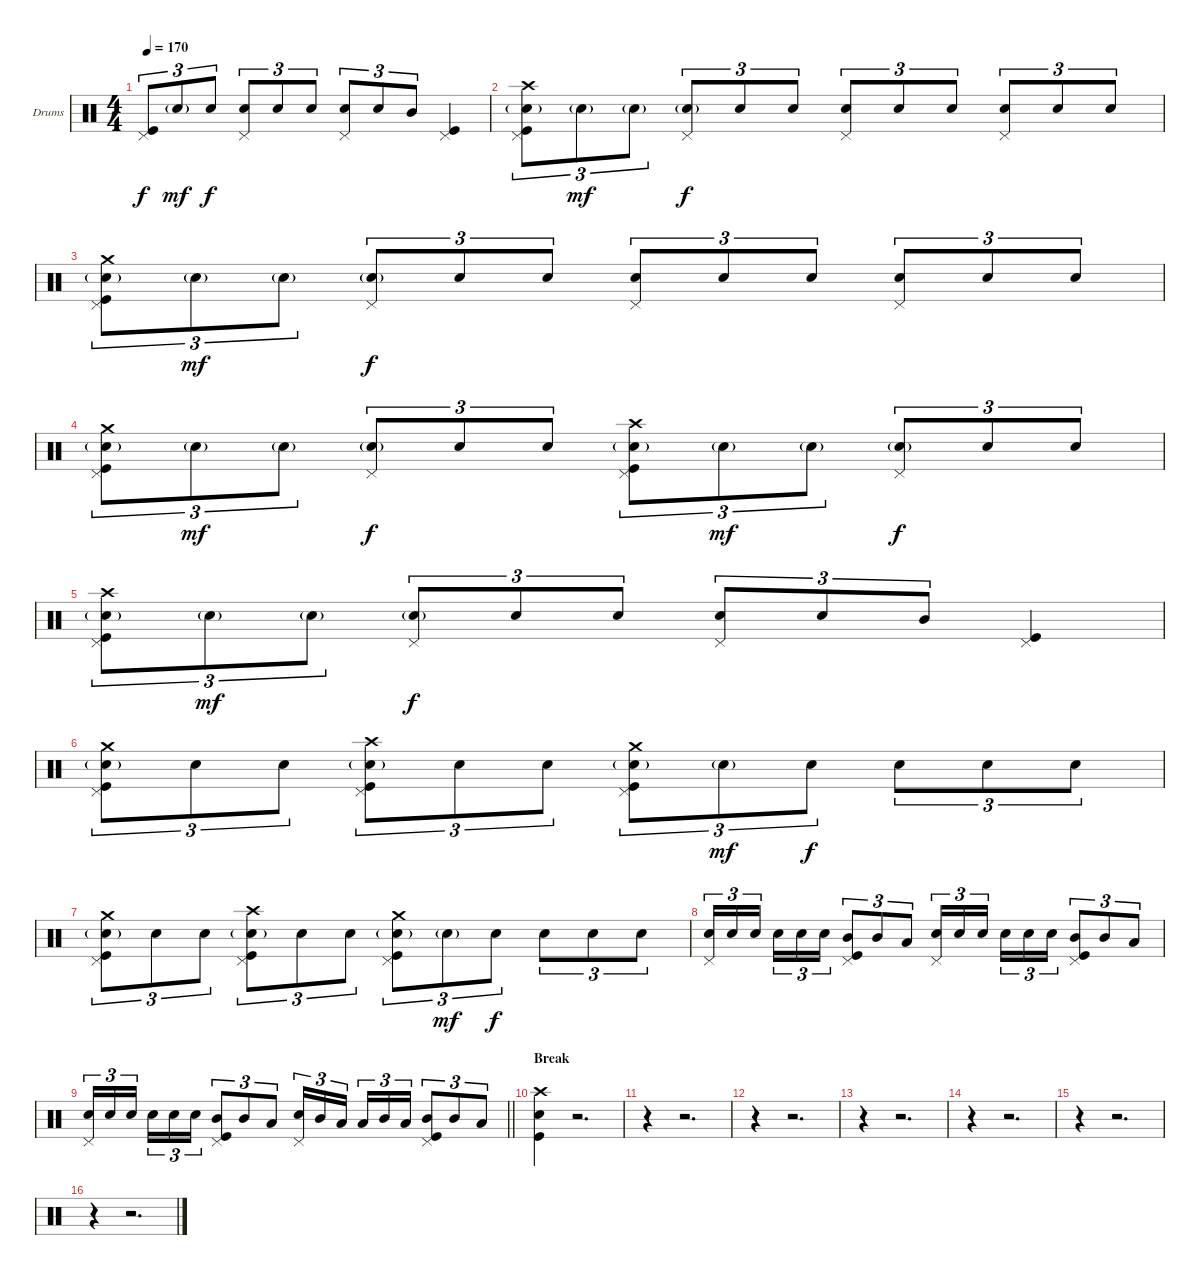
\bracketExtendMode groupsimilarinstruments
\firstSystemTrackNameOrientation horizontal
\otherSystemsTrackNameOrientation horizontal
\track ("Dave Grohl [Drumms]" "Drums") {instrument percussion}
\staff {score}
\articulation defaults
\ts (4 4)
\tempo 170
\clef neutral
\ks c
("Pedal Hi-Hat (hit)" "Kick (hit)").8{tu (3 2) dy f} "Snare (hit) 2"{g}.8{tu (3 2) dy mf} "Snare (hit) 2".8{tu (3 2) dy f} ("Pedal Hi-Hat (hit)" "Snare (hit) 2").8{tu (3 2)} "Snare (hit) 2".8{tu (3 2)} "Snare (hit) 2".8{tu (3 2)} ("Pedal Hi-Hat (hit)" "Snare (hit) 2").8{tu (3 2)} "Snare (hit) 2".8{tu (3 2)} "Mid Tom (hit)".8{tu (3 2)} ("Pedal Hi-Hat (hit)" "Kick (hit)").4 |
("Crash high (hit)" "Pedal Hi-Hat (hit)" "Snare (hit) 2"{g} "Kick (hit)").8{tu (3 2)} "Snare (hit) 2"{g}.8{tu (3 2) dy mf} "Snare (hit) 2"{g}.8{tu (3 2)} ("Pedal Hi-Hat (hit)" "Snare (hit) 2"{g}).8{tu (3 2) dy f} "Snare (hit) 2".8{tu (3 2)} "Snare (hit) 2".8{tu (3 2)} ("Pedal Hi-Hat (hit)" "Snare (hit) 2").8{tu (3 2)} "Snare (hit) 2".8{tu (3 2)} "Snare (hit) 2".8{tu (3 2)} ("Pedal Hi-Hat (hit)" "Snare (hit) 2").8{tu (3 2)} "Snare (hit) 2".8{tu (3 2)} "Snare (hit) 2".8{tu (3 2)} |
("Crash medium (hit)" "Pedal Hi-Hat (hit)" "Snare (hit) 2"{g} "Kick (hit)").8{tu (3 2)} "Snare (hit) 2"{g}.8{tu (3 2) dy mf} "Snare (hit) 2"{g}.8{tu (3 2)} ("Pedal Hi-Hat (hit)" "Snare (hit) 2"{g}).8{tu (3 2) dy f} "Snare (hit) 2".8{tu (3 2)} "Snare (hit) 2".8{tu (3 2)} ("Pedal Hi-Hat (hit)" "Snare (hit) 2").8{tu (3 2)} "Snare (hit) 2".8{tu (3 2)} "Snare (hit) 2".8{tu (3 2)} ("Pedal Hi-Hat (hit)" "Snare (hit) 2").8{tu (3 2)} "Snare (hit) 2".8{tu (3 2)} "Snare (hit) 2".8{tu (3 2)} |
("Crash medium (hit)" "Pedal Hi-Hat (hit)" "Snare (hit) 2"{g} "Kick (hit)").8{tu (3 2)} "Snare (hit) 2"{g}.8{tu (3 2) dy mf} "Snare (hit) 2"{g}.8{tu (3 2)} ("Pedal Hi-Hat (hit)" "Snare (hit) 2"{g}).8{tu (3 2) dy f} "Snare (hit) 2".8{tu (3 2)} "Snare (hit) 2".8{tu (3 2)} ("Crash high (hit)" "Pedal Hi-Hat (hit)" "Snare (hit) 2"{g} "Kick (hit)").8{tu (3 2)} "Snare (hit) 2"{g}.8{tu (3 2) dy mf} "Snare (hit) 2"{g}.8{tu (3 2)} ("Pedal Hi-Hat (hit)" "Snare (hit) 2"{g}).8{tu (3 2) dy f} "Snare (hit) 2".8{tu (3 2)} "Snare (hit) 2".8{tu (3 2)} |
("Crash high (hit)" "Pedal Hi-Hat (hit)" "Snare (hit) 2"{g} "Kick (hit)").8{tu (3 2)} "Snare (hit) 2"{g}.8{tu (3 2) dy mf} "Snare (hit) 2"{g}.8{tu (3 2)} ("Pedal Hi-Hat (hit)" "Snare (hit) 2"{g}).8{tu (3 2) dy f} "Snare (hit) 2".8{tu (3 2)} "Snare (hit) 2".8{tu (3 2)} ("Pedal Hi-Hat (hit)" "Snare (hit) 2").8{tu (3 2)} "Snare (hit) 2".8{tu (3 2)} "Mid Tom (hit)".8{tu (3 2)} ("Pedal Hi-Hat (hit)" "Kick (hit)").4 |
("Crash medium (hit)" "Pedal Hi-Hat (hit)" "Snare (hit) 2"{g} "Kick (hit)").8{tu (3 2)} "Snare (hit) 2".8{tu (3 2)} "Snare (hit) 2".8{tu (3 2)} ("Crash high (hit)" "Pedal Hi-Hat (hit)" "Snare (hit) 2"{g} "Kick (hit)").8{tu (3 2)} "Snare (hit) 2".8{tu (3 2)} "Snare (hit) 2".8{tu (3 2)} ("Crash medium (hit)" "Pedal Hi-Hat (hit)" "Snare (hit) 2"{g} "Kick (hit)").8{tu (3 2)} "Snare (hit) 2"{g}.8{tu (3 2) dy mf} "Snare (hit) 2".8{tu (3 2) dy f} "Snare (hit) 2".8{tu (3 2)} "Snare (hit) 2".8{tu (3 2)} "Snare (hit) 2".8{tu (3 2)} |
("Crash medium (hit)" "Pedal Hi-Hat (hit)" "Snare (hit) 2"{g} "Kick (hit)").8{tu (3 2)} "Snare (hit) 2".8{tu (3 2)} "Snare (hit) 2".8{tu (3 2)} ("Crash high (hit)" "Pedal Hi-Hat (hit)" "Snare (hit) 2"{g} "Kick (hit)").8{tu (3 2)} "Snare (hit) 2".8{tu (3 2)} "Snare (hit) 2".8{tu (3 2)} ("Crash medium (hit)" "Pedal Hi-Hat (hit)" "Snare (hit) 2"{g} "Kick (hit)").8{tu (3 2)} "Snare (hit) 2"{g}.8{tu (3 2) dy mf} "Snare (hit) 2".8{tu (3 2) dy f} "Snare (hit) 2".8{tu (3 2)} "Snare (hit) 2".8{tu (3 2)} "Snare (hit) 2".8{tu (3 2)} |
("Pedal Hi-Hat (hit)" "Snare (hit) 2").16{tu (3 2)} "Snare (hit) 2".16{tu (3 2)} "Snare (hit) 2".16{tu (3 2)} "Snare (hit) 2".16{tu (3 2)} "Snare (hit) 2".16{tu (3 2)} "Snare (hit) 2".16{tu (3 2)} ("Pedal Hi-Hat (hit)" "Mid Tom (hit)" "Kick (hit)").8{tu (3 2)} "Mid Tom (hit)".8{tu (3 2)} "Low Tom (hit)".8{tu (3 2)} ("Pedal Hi-Hat (hit)" "Snare (hit) 2").16{tu (3 2)} "Snare (hit) 2".16{tu (3 2)} "Snare (hit) 2".16{tu (3 2)} "Snare (hit) 2".16{tu (3 2)} "Snare (hit) 2".16{tu (3 2)} "Snare (hit) 2".16{tu (3 2)} ("Pedal Hi-Hat (hit)" "Mid Tom (hit)" "Kick (hit)").8{tu (3 2)} "Mid Tom (hit)".8{tu (3 2)} "Low Tom (hit)".8{tu (3 2)} |
\barLineRight lightlight
("Pedal Hi-Hat (hit)" "Snare (hit) 2").16{tu (3 2)} "Snare (hit) 2".16{tu (3 2)} "Snare (hit) 2".16{tu (3 2)} "Snare (hit) 2".16{tu (3 2)} "Snare (hit) 2".16{tu (3 2)} "Snare (hit) 2".16{tu (3 2)} ("Pedal Hi-Hat (hit)" "Mid Tom (hit)" "Kick (hit)").8{tu (3 2)} "Mid Tom (hit)".8{tu (3 2)} "Low Tom (hit)".8{tu (3 2)} ("Pedal Hi-Hat (hit)" "Snare (hit) 2").16{tu (3 2)} "Mid Tom (hit)".16{tu (3 2)} "Low Tom (hit)".16{tu (3 2)} "Low Tom (hit)".16{tu (3 2)} "Mid Tom (hit)".16{tu (3 2)} "Low Tom (hit)".16{tu (3 2)} ("Pedal Hi-Hat (hit)" "Mid Tom (hit)" "Kick (hit)").8{tu (3 2)} "Mid Tom (hit)".8{tu (3 2)} "Low Tom (hit)".8{tu (3 2)} |
\section ("" "Break")
("Crash high (hit)" "Snare (hit) 2" "Kick (hit)").4 r.2{d} |
r.4 r.2{d} |
r.4 r.2{d} |
r.4 r.2{d} |
r.4 r.2{d} |
r.4 r.2{d} |
r.4 r.2{d}
